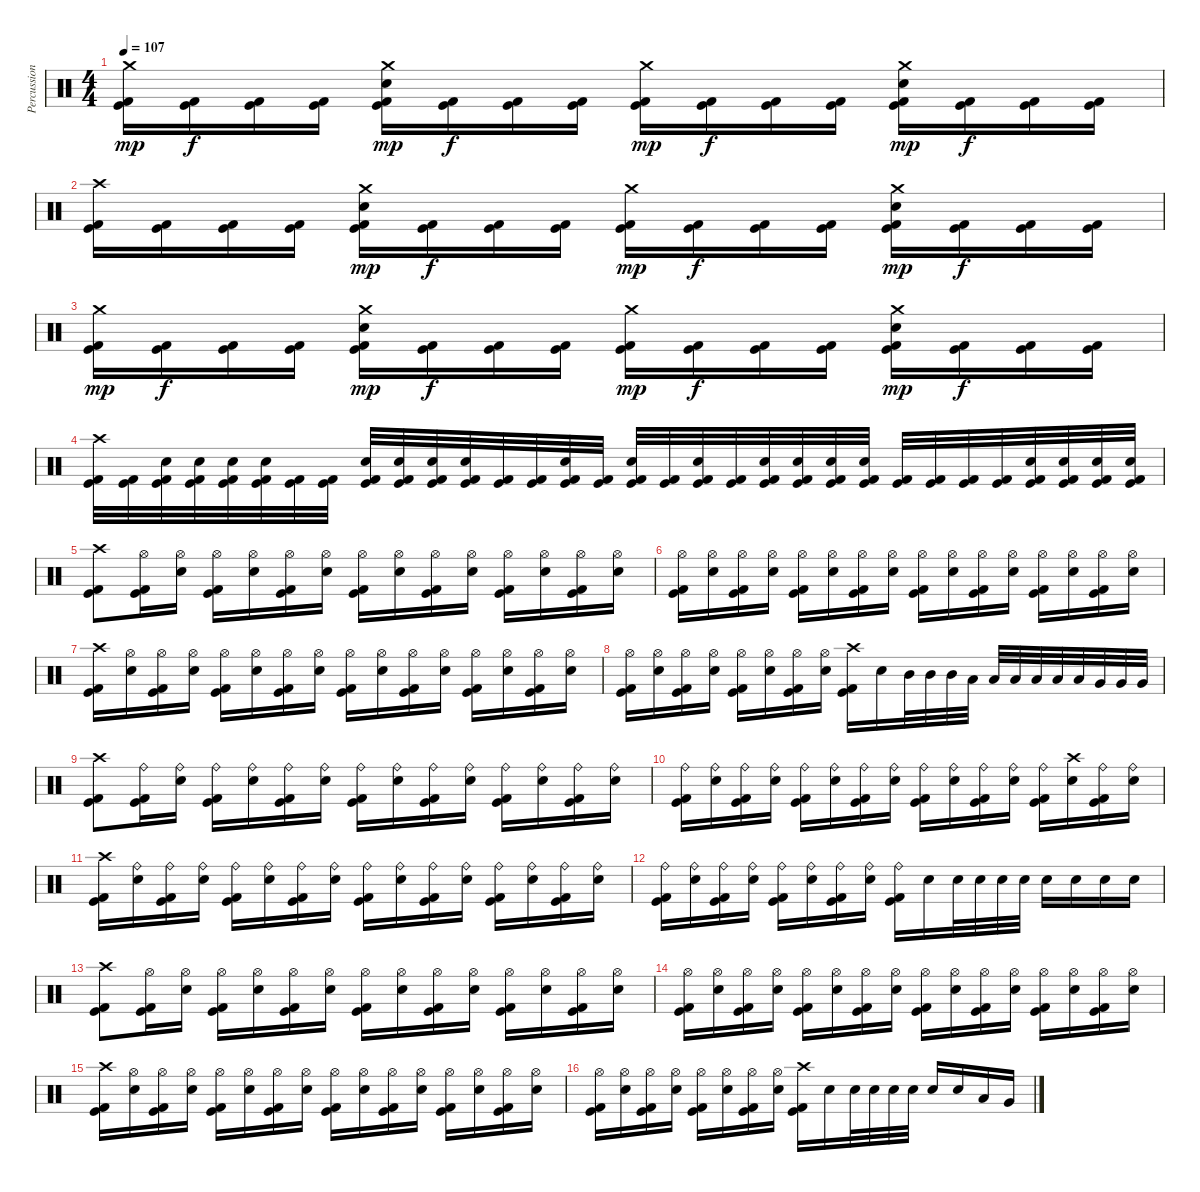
\track ("Percussion" "Percussion") {instrument percussion}
\staff {score}
\articulation defaults
\ts (4 4)
\tempo 107
\clef neutral
\ks c
("Crash medium (hit)" "Kick (hit)" "Kick (hit) 2").16{dy mp} ("Kick (hit)" "Kick (hit) 2").16{dy f} ("Kick (hit)" "Kick (hit) 2").16 ("Kick (hit)" "Kick (hit) 2").16 ("Crash medium (hit)" "Electric Snare (hit)" "Kick (hit)" "Kick (hit) 2").16{dy mp} ("Kick (hit)" "Kick (hit) 2").16{dy f} ("Kick (hit)" "Kick (hit) 2").16 ("Kick (hit)" "Kick (hit) 2").16 ("Crash medium (hit)" "Kick (hit)" "Kick (hit) 2").16{dy mp} ("Kick (hit)" "Kick (hit) 2").16{dy f} ("Kick (hit)" "Kick (hit) 2").16 ("Kick (hit)" "Kick (hit) 2").16 ("Crash medium (hit)" "Electric Snare (hit)" "Kick (hit)" "Kick (hit) 2").16{dy mp} ("Kick (hit)" "Kick (hit) 2").16{dy f} ("Kick (hit)" "Kick (hit) 2").16 ("Kick (hit)" "Kick (hit) 2").16 |
("Crash high (hit)" "Kick (hit)" "Kick (hit) 2").16 ("Kick (hit)" "Kick (hit) 2").16 ("Kick (hit)" "Kick (hit) 2").16 ("Kick (hit)" "Kick (hit) 2").16 ("Crash medium (hit)" "Electric Snare (hit)" "Kick (hit)" "Kick (hit) 2").16{dy mp} ("Kick (hit)" "Kick (hit) 2").16{dy f} ("Kick (hit)" "Kick (hit) 2").16 ("Kick (hit)" "Kick (hit) 2").16 ("Crash medium (hit)" "Kick (hit)" "Kick (hit) 2").16{dy mp} ("Kick (hit)" "Kick (hit) 2").16{dy f} ("Kick (hit)" "Kick (hit) 2").16 ("Kick (hit)" "Kick (hit) 2").16 ("Crash medium (hit)" "Electric Snare (hit)" "Kick (hit)" "Kick (hit) 2").16{dy mp} ("Kick (hit)" "Kick (hit) 2").16{dy f} ("Kick (hit)" "Kick (hit) 2").16 ("Kick (hit)" "Kick (hit) 2").16 |
("Crash medium (hit)" "Kick (hit)" "Kick (hit) 2").16{dy mp} ("Kick (hit)" "Kick (hit) 2").16{dy f} ("Kick (hit)" "Kick (hit) 2").16 ("Kick (hit)" "Kick (hit) 2").16 ("Crash medium (hit)" "Electric Snare (hit)" "Kick (hit)" "Kick (hit) 2").16{dy mp} ("Kick (hit)" "Kick (hit) 2").16{dy f} ("Kick (hit)" "Kick (hit) 2").16 ("Kick (hit)" "Kick (hit) 2").16 ("Crash medium (hit)" "Kick (hit)" "Kick (hit) 2").16{dy mp} ("Kick (hit)" "Kick (hit) 2").16{dy f} ("Kick (hit)" "Kick (hit) 2").16 ("Kick (hit)" "Kick (hit) 2").16 ("Crash medium (hit)" "Electric Snare (hit)" "Kick (hit)" "Kick (hit) 2").16{dy mp} ("Kick (hit)" "Kick (hit) 2").16{dy f} ("Kick (hit)" "Kick (hit) 2").16 ("Kick (hit)" "Kick (hit) 2").16 |
("Crash high (hit)" "Kick (hit)" "Kick (hit) 2").32 ("Kick (hit)" "Kick (hit) 2").32 ("Electric Snare (hit)" "Kick (hit)" "Kick (hit) 2").32 ("Electric Snare (hit)" "Kick (hit)" "Kick (hit) 2").32 ("Electric Snare (hit)" "Kick (hit)" "Kick (hit) 2").32 ("Electric Snare (hit)" "Kick (hit)" "Kick (hit) 2").32 ("Kick (hit)" "Kick (hit) 2").32 ("Kick (hit)" "Kick (hit) 2").32 ("Electric Snare (hit)" "Kick (hit)" "Kick (hit) 2").32 ("Electric Snare (hit)" "Kick (hit)" "Kick (hit) 2").32 ("Electric Snare (hit)" "Kick (hit)" "Kick (hit) 2").32 ("Electric Snare (hit)" "Kick (hit)" "Kick (hit) 2").32 ("Kick (hit)" "Kick (hit) 2").32 ("Kick (hit)" "Kick (hit) 2").32 ("Electric Snare (hit)" "Kick (hit)" "Kick (hit) 2").32 ("Kick (hit)" "Kick (hit) 2").32 ("Electric Snare (hit)" "Kick (hit)" "Kick (hit) 2").32 ("Kick (hit)" "Kick (hit) 2").32 ("Electric Snare (hit)" "Kick (hit)" "Kick (hit) 2").32 ("Kick (hit)" "Kick (hit) 2").32 ("Electric Snare (hit)" "Kick (hit)" "Kick (hit) 2").32 ("Electric Snare (hit)" "Kick (hit)" "Kick (hit) 2").32 ("Electric Snare (hit)" "Kick (hit)" "Kick (hit) 2").32 ("Electric Snare (hit)" "Kick (hit)" "Kick (hit) 2").32 ("Kick (hit)" "Kick (hit) 2").32 ("Kick (hit)" "Kick (hit) 2").32 ("Kick (hit)" "Kick (hit) 2").32 ("Kick (hit)" "Kick (hit) 2").32 ("Electric Snare (hit)" "Kick (hit)" "Kick (hit) 2").32 ("Electric Snare (hit)" "Kick (hit)" "Kick (hit) 2").32 ("Electric Snare (hit)" "Kick (hit)" "Kick (hit) 2").32 ("Electric Snare (hit)" "Kick (hit)" "Kick (hit) 2").32 |
("Crash high (hit)" "Kick (hit)" "Kick (hit) 2").8 ("Hi-Hat (open)" "Kick (hit)" "Kick (hit) 2").16 ("Hi-Hat (open)" "Electric Snare (hit)").16 ("Hi-Hat (open)" "Kick (hit)" "Kick (hit) 2").16 ("Hi-Hat (open)" "Electric Snare (hit)").16 ("Hi-Hat (open)" "Kick (hit)" "Kick (hit) 2").16 ("Hi-Hat (open)" "Electric Snare (hit)").16 ("Hi-Hat (open)" "Kick (hit)" "Kick (hit) 2").16 ("Hi-Hat (open)" "Electric Snare (hit)").16 ("Hi-Hat (open)" "Kick (hit)" "Kick (hit) 2").16 ("Hi-Hat (open)" "Electric Snare (hit)").16 ("Hi-Hat (open)" "Kick (hit)" "Kick (hit) 2").16 ("Hi-Hat (open)" "Electric Snare (hit)").16 ("Hi-Hat (open)" "Kick (hit)" "Kick (hit) 2").16 ("Hi-Hat (open)" "Electric Snare (hit)").16 |
("Hi-Hat (open)" "Kick (hit)" "Kick (hit) 2").16 ("Hi-Hat (open)" "Electric Snare (hit)").16 ("Hi-Hat (open)" "Kick (hit)" "Kick (hit) 2").16 ("Hi-Hat (open)" "Electric Snare (hit)").16 ("Hi-Hat (open)" "Kick (hit)" "Kick (hit) 2").16 ("Hi-Hat (open)" "Electric Snare (hit)").16 ("Hi-Hat (open)" "Kick (hit)" "Kick (hit) 2").16 ("Hi-Hat (open)" "Electric Snare (hit)").16 ("Hi-Hat (open)" "Kick (hit)" "Kick (hit) 2").16 ("Hi-Hat (open)" "Electric Snare (hit)").16 ("Hi-Hat (open)" "Kick (hit)" "Kick (hit) 2").16 ("Hi-Hat (open)" "Electric Snare (hit)").16 ("Hi-Hat (open)" "Kick (hit)" "Kick (hit) 2").16 ("Hi-Hat (open)" "Electric Snare (hit)").16 ("Hi-Hat (open)" "Kick (hit)" "Kick (hit) 2").16 ("Hi-Hat (open)" "Electric Snare (hit)").16 |
("Crash high (hit)" "Kick (hit)" "Kick (hit) 2").16 ("Hi-Hat (open)" "Electric Snare (hit)").16 ("Hi-Hat (open)" "Kick (hit)" "Kick (hit) 2").16 ("Hi-Hat (open)" "Electric Snare (hit)").16 ("Hi-Hat (open)" "Kick (hit)" "Kick (hit) 2").16 ("Hi-Hat (open)" "Electric Snare (hit)").16 ("Hi-Hat (open)" "Kick (hit)" "Kick (hit) 2").16 ("Hi-Hat (open)" "Electric Snare (hit)").16 ("Hi-Hat (open)" "Kick (hit)" "Kick (hit) 2").16 ("Hi-Hat (open)" "Electric Snare (hit)").16 ("Hi-Hat (open)" "Kick (hit)" "Kick (hit) 2").16 ("Hi-Hat (open)" "Electric Snare (hit)").16 ("Hi-Hat (open)" "Kick (hit)" "Kick (hit) 2").16 ("Hi-Hat (open)" "Electric Snare (hit)").16 ("Hi-Hat (open)" "Kick (hit)" "Kick (hit) 2").16 ("Hi-Hat (open)" "Electric Snare (hit)").16 |
("Hi-Hat (open)" "Kick (hit)" "Kick (hit) 2").16 ("Hi-Hat (open)" "Electric Snare (hit)").16 ("Hi-Hat (open)" "Kick (hit)" "Kick (hit) 2").16 ("Hi-Hat (open)" "Electric Snare (hit)").16 ("Hi-Hat (open)" "Kick (hit)" "Kick (hit) 2").16 ("Hi-Hat (open)" "Electric Snare (hit)").16 ("Hi-Hat (open)" "Kick (hit)" "Kick (hit) 2").16 ("Hi-Hat (open)" "Electric Snare (hit)").16 ("Crash high (hit)" "Kick (hit)" "Kick (hit) 2").16 "Electric Snare (hit)".16 "Mid Tom (hit)".32 "Mid Tom (hit)".32 "Mid Tom (hit)".32 "Low Tom (hit)".32 "Low Tom (hit)".32 "Low Tom (hit)".32 "Low Tom (hit)".32 "Low Tom (hit)".32 "Low Tom (hit)".32 "Very Low Tom (hit)".32 "Very Low Tom (hit)".32 "Very Low Tom (hit)".32 |
("Crash high (hit)" "Kick (hit)" "Kick (hit) 2").8 ("Ride (bell)" "Kick (hit)" "Kick (hit) 2").16 ("Ride (bell)" "Electric Snare (hit)").16 ("Ride (bell)" "Kick (hit)" "Kick (hit) 2").16 ("Ride (bell)" "Electric Snare (hit)").16 ("Ride (bell)" "Kick (hit)" "Kick (hit) 2").16 ("Ride (bell)" "Electric Snare (hit)").16 ("Ride (bell)" "Kick (hit)" "Kick (hit) 2").16 ("Ride (bell)" "Electric Snare (hit)").16 ("Ride (bell)" "Kick (hit)" "Kick (hit) 2").16 ("Ride (bell)" "Electric Snare (hit)").16 ("Ride (bell)" "Kick (hit)" "Kick (hit) 2").16 ("Ride (bell)" "Electric Snare (hit)").16 ("Ride (bell)" "Kick (hit)" "Kick (hit) 2").16 ("Ride (bell)" "Electric Snare (hit)").16 |
("Ride (bell)" "Kick (hit)" "Kick (hit) 2").16 ("Ride (bell)" "Electric Snare (hit)").16 ("Ride (bell)" "Kick (hit)" "Kick (hit) 2").16 ("Ride (bell)" "Electric Snare (hit)").16 ("Ride (bell)" "Kick (hit)" "Kick (hit) 2").16 ("Ride (bell)" "Electric Snare (hit)").16 ("Ride (bell)" "Kick (hit)" "Kick (hit) 2").16 ("Ride (bell)" "Electric Snare (hit)").16 ("Ride (bell)" "Kick (hit)" "Kick (hit) 2").16 ("Ride (bell)" "Electric Snare (hit)").16 ("Ride (bell)" "Kick (hit)" "Kick (hit) 2").16 ("Ride (bell)" "Electric Snare (hit)").16 ("Ride (bell)" "Kick (hit)" "Kick (hit) 2").16 ("Crash high (hit)" "Electric Snare (hit)").16 ("Ride (bell)" "Kick (hit)" "Kick (hit) 2").16 ("Ride (bell)" "Electric Snare (hit)").16 |
("Crash high (hit)" "Kick (hit)" "Kick (hit) 2").16 ("Ride (bell)" "Electric Snare (hit)").16 ("Ride (bell)" "Kick (hit)" "Kick (hit) 2").16 ("Ride (bell)" "Electric Snare (hit)").16 ("Ride (bell)" "Kick (hit)" "Kick (hit) 2").16 ("Ride (bell)" "Electric Snare (hit)").16 ("Ride (bell)" "Kick (hit)" "Kick (hit) 2").16 ("Ride (bell)" "Electric Snare (hit)").16 ("Ride (bell)" "Kick (hit)" "Kick (hit) 2").16 ("Ride (bell)" "Electric Snare (hit)").16 ("Ride (bell)" "Kick (hit)" "Kick (hit) 2").16 ("Ride (bell)" "Electric Snare (hit)").16 ("Ride (bell)" "Kick (hit)" "Kick (hit) 2").16 ("Ride (bell)" "Electric Snare (hit)").16 ("Ride (bell)" "Kick (hit)" "Kick (hit) 2").16 ("Ride (bell)" "Electric Snare (hit)").16 |
("Ride (bell)" "Kick (hit)" "Kick (hit) 2").16 ("Ride (bell)" "Electric Snare (hit)").16 ("Ride (bell)" "Kick (hit)" "Kick (hit) 2").16 ("Ride (bell)" "Electric Snare (hit)").16 ("Ride (bell)" "Kick (hit)" "Kick (hit) 2").16 ("Ride (bell)" "Electric Snare (hit)").16 ("Ride (bell)" "Kick (hit)" "Kick (hit) 2").16 ("Ride (bell)" "Electric Snare (hit)").16 ("Ride (bell)" "Kick (hit)" "Kick (hit) 2").16 "Electric Snare (hit)".16 "Electric Snare (hit)".32 "Electric Snare (hit)".32 "Electric Snare (hit)".32 "Electric Snare (hit)".32 "Electric Snare (hit)".16 "Electric Snare (hit)".16 "Electric Snare (hit)".16 "Electric Snare (hit)".16 |
("Crash high (hit)" "Kick (hit)" "Kick (hit) 2").8 ("Hi-Hat (open)" "Kick (hit)" "Kick (hit) 2").16 ("Hi-Hat (open)" "Electric Snare (hit)").16 ("Hi-Hat (open)" "Kick (hit)" "Kick (hit) 2").16 ("Hi-Hat (open)" "Electric Snare (hit)").16 ("Hi-Hat (open)" "Kick (hit)" "Kick (hit) 2").16 ("Hi-Hat (open)" "Electric Snare (hit)").16 ("Hi-Hat (open)" "Kick (hit)" "Kick (hit) 2").16 ("Hi-Hat (open)" "Electric Snare (hit)").16 ("Hi-Hat (open)" "Kick (hit)" "Kick (hit) 2").16 ("Hi-Hat (open)" "Electric Snare (hit)").16 ("Hi-Hat (open)" "Kick (hit)" "Kick (hit) 2").16 ("Hi-Hat (open)" "Electric Snare (hit)").16 ("Hi-Hat (open)" "Kick (hit)" "Kick (hit) 2").16 ("Hi-Hat (open)" "Electric Snare (hit)").16 |
("Hi-Hat (open)" "Kick (hit)" "Kick (hit) 2").16 ("Hi-Hat (open)" "Electric Snare (hit)").16 ("Hi-Hat (open)" "Kick (hit)" "Kick (hit) 2").16 ("Hi-Hat (open)" "Electric Snare (hit)").16 ("Hi-Hat (open)" "Kick (hit)" "Kick (hit) 2").16 ("Hi-Hat (open)" "Electric Snare (hit)").16 ("Hi-Hat (open)" "Kick (hit)" "Kick (hit) 2").16 ("Hi-Hat (open)" "Electric Snare (hit)").16 ("Hi-Hat (open)" "Kick (hit)" "Kick (hit) 2").16 ("Hi-Hat (open)" "Electric Snare (hit)").16 ("Hi-Hat (open)" "Kick (hit)" "Kick (hit) 2").16 ("Hi-Hat (open)" "Electric Snare (hit)").16 ("Hi-Hat (open)" "Kick (hit)" "Kick (hit) 2").16 ("Hi-Hat (open)" "Electric Snare (hit)").16 ("Hi-Hat (open)" "Kick (hit)" "Kick (hit) 2").16 ("Hi-Hat (open)" "Electric Snare (hit)").16 |
("Crash high (hit)" "Kick (hit)" "Kick (hit) 2").16 ("Hi-Hat (open)" "Electric Snare (hit)").16 ("Hi-Hat (open)" "Kick (hit)" "Kick (hit) 2").16 ("Hi-Hat (open)" "Electric Snare (hit)").16 ("Hi-Hat (open)" "Kick (hit)" "Kick (hit) 2").16 ("Hi-Hat (open)" "Electric Snare (hit)").16 ("Hi-Hat (open)" "Kick (hit)" "Kick (hit) 2").16 ("Hi-Hat (open)" "Electric Snare (hit)").16 ("Hi-Hat (open)" "Kick (hit)" "Kick (hit) 2").16 ("Hi-Hat (open)" "Electric Snare (hit)").16 ("Hi-Hat (open)" "Kick (hit)" "Kick (hit) 2").16 ("Hi-Hat (open)" "Electric Snare (hit)").16 ("Hi-Hat (open)" "Kick (hit)" "Kick (hit) 2").16 ("Hi-Hat (open)" "Electric Snare (hit)").16 ("Hi-Hat (open)" "Kick (hit)" "Kick (hit) 2").16 ("Hi-Hat (open)" "Electric Snare (hit)").16 |
("Hi-Hat (open)" "Kick (hit)" "Kick (hit) 2").16 ("Hi-Hat (open)" "Electric Snare (hit)").16 ("Hi-Hat (open)" "Kick (hit)" "Kick (hit) 2").16 ("Hi-Hat (open)" "Electric Snare (hit)").16 ("Hi-Hat (open)" "Kick (hit)" "Kick (hit) 2").16 ("Hi-Hat (open)" "Electric Snare (hit)").16 ("Hi-Hat (open)" "Kick (hit)" "Kick (hit) 2").16 ("Hi-Hat (open)" "Electric Snare (hit)").16 ("Crash high (hit)" "Kick (hit)" "Kick (hit) 2").16 "Electric Snare (hit)".16 "Electric Snare (hit)".32 "Electric Snare (hit)".32 "Electric Snare (hit)".32 "Electric Snare (hit)".32 "Electric Snare (hit)".16 "Electric Snare (hit)".16 "Low Tom (hit)".16 "Very Low Tom (hit)".16
